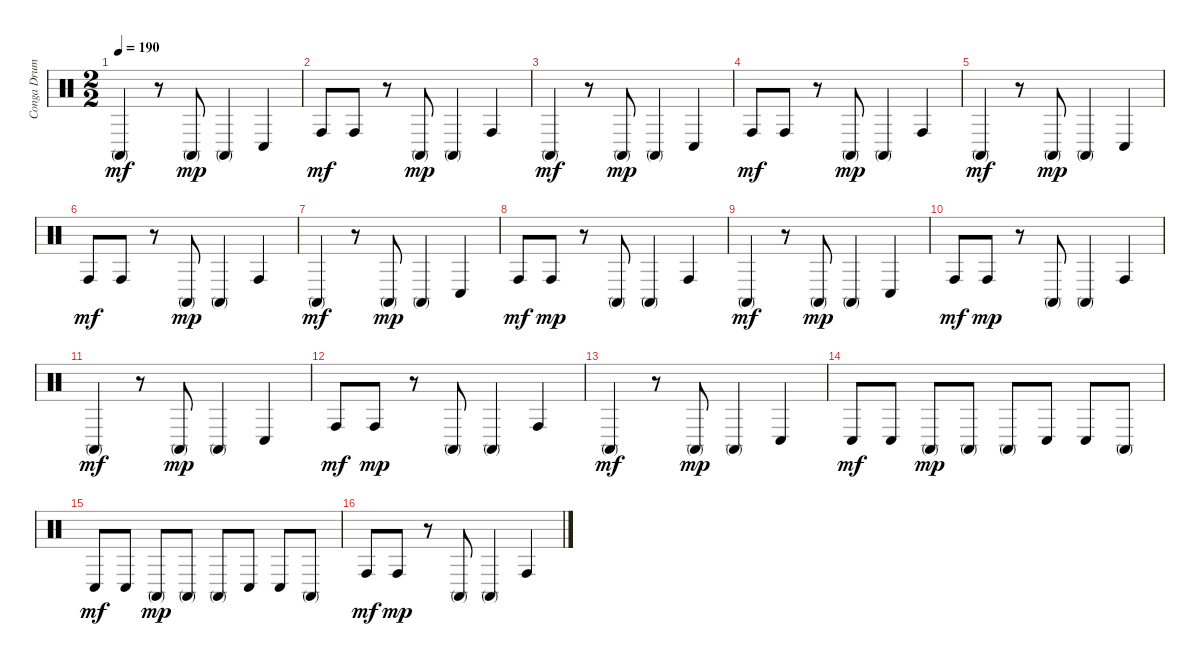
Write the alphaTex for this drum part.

\track ("Conga Drums" "Conga Drum") {instrument percussion}
\staff {score}
\articulation defaults
\ts (2 2)
\tempo 190
\clef neutral
\ks c "Conga high (mute)".4{dy mf}
r.8 "Conga high (mute)".8{dy mp} "Conga high (mute)".4 "Conga low (hit)".4 |
"Conga high (hit)".8{dy mf} "Conga high (hit)".8 r.8 "Conga high (mute)".8{dy mp} "Conga high (mute)".4 "Conga high (hit)".4 |
"Conga high (mute)".4{dy mf} r.8 "Conga high (mute)".8{dy mp} "Conga high (mute)".4 "Conga low (hit)".4 |
"Conga high (hit)".8{dy mf} "Conga high (hit)".8 r.8 "Conga high (mute)".8{dy mp} "Conga high (mute)".4 "Conga high (hit)".4 |
"Conga high (mute)".4{dy mf} r.8 "Conga high (mute)".8{dy mp} "Conga high (mute)".4 "Conga low (hit)".4 |
"Conga high (hit)".8{dy mf} "Conga high (hit)".8 r.8 "Conga high (mute)".8{dy mp} "Conga high (mute)".4 "Conga high (hit)".4 |
"Conga high (mute)".4{dy mf} r.8 "Conga high (mute)".8{dy mp} "Conga high (mute)".4 "Conga low (hit)".4 |
"Conga high (hit)".8{dy mf} "Conga high (hit)".8{dy mp} r.8 "Conga high (mute)".8 "Conga high (mute)".4 "Conga high (hit)".4 |
"Conga high (mute)".4{dy mf} r.8 "Conga high (mute)".8{dy mp} "Conga high (mute)".4 "Conga low (hit)".4 |
"Conga high (hit)".8{dy mf} "Conga high (hit)".8{dy mp} r.8 "Conga high (mute)".8 "Conga high (mute)".4 "Conga high (hit)".4 |
"Conga high (mute)".4{dy mf} r.8 "Conga high (mute)".8{dy mp} "Conga high (mute)".4 "Conga low (hit)".4 |
"Conga high (hit)".8{dy mf} "Conga high (hit)".8{dy mp} r.8 "Conga high (mute)".8 "Conga high (mute)".4 "Conga high (hit)".4 |
"Conga high (mute)".4{dy mf} r.8 "Conga high (mute)".8{dy mp} "Conga high (mute)".4 "Conga low (hit)".4 |
"Conga low (hit)".8{dy mf} "Conga low (hit)".8 "Conga high (mute)".8{dy mp} "Conga high (mute)".8 "Conga high (mute)".8 "Conga low (hit)".8 "Conga low (hit)".8 "Conga high (mute)".8 |
"Conga low (hit)".8{dy mf} "Conga low (hit)".8 "Conga high (mute)".8{dy mp} "Conga high (mute)".8 "Conga high (mute)".8 "Conga low (hit)".8 "Conga low (hit)".8 "Conga high (mute)".8 |
"Conga high (hit)".8{dy mf} "Conga high (hit)".8{dy mp} r.8 "Conga high (mute)".8 "Conga high (mute)".4 "Conga high (hit)".4
